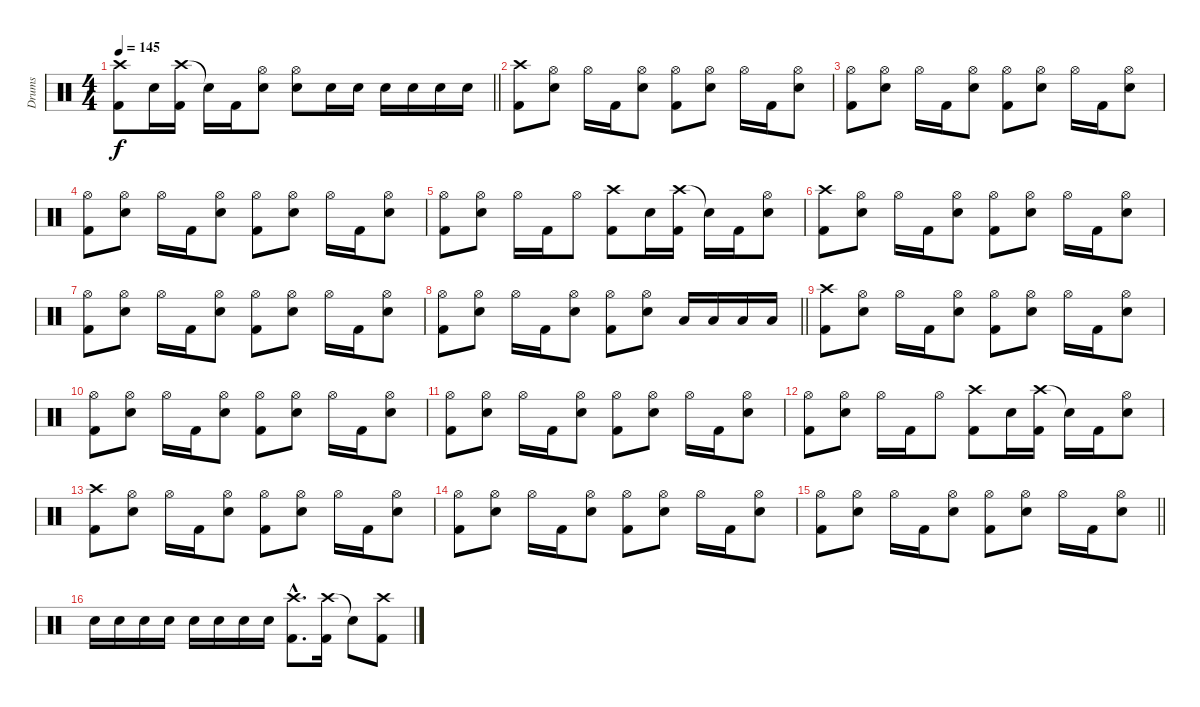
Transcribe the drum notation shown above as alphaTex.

\track ("Drums" "Drums") {instrument percussion}
\staff {score}
\articulation defaults
\ts (4 4)
\tempo 145
\clef neutral
\barLineRight lightlight
\ks c
("Crash high (hit)" "Kick (hit) 2").8{dy f} "Snare (hit) 2".16 ("Crash high (hit)" "Kick (hit) 2").16 "Snare (hit)"{t}.16 "Kick (hit) 2".16 ("Hi-Hat (open)" "Snare (hit) 2").8 ("Hi-Hat (open)" "Snare (hit) 2").8 "Snare (hit) 2".16 "Snare (hit) 2".16 "Snare (hit) 2".16 "Snare (hit) 2".16 "Snare (hit) 2".16 "Snare (hit) 2".16 |
("Crash high (hit)" "Kick (hit) 2").8 ("Hi-Hat (open)" "Snare (hit) 2").8 "Hi-Hat (open)".16 "Kick (hit) 2".16 ("Hi-Hat (open)" "Snare (hit) 2").8 ("Hi-Hat (open)" "Kick (hit) 2").8 ("Hi-Hat (open)" "Snare (hit) 2").8 "Hi-Hat (open)".16 "Kick (hit) 2".16 ("Hi-Hat (open)" "Snare (hit) 2").8 |
("Hi-Hat (open)" "Kick (hit) 2").8 ("Hi-Hat (open)" "Snare (hit) 2").8 "Hi-Hat (open)".16 "Kick (hit) 2".16 ("Hi-Hat (open)" "Snare (hit) 2").8 ("Hi-Hat (open)" "Kick (hit) 2").8 ("Hi-Hat (open)" "Snare (hit) 2").8 "Hi-Hat (open)".16 "Kick (hit) 2".16 ("Hi-Hat (open)" "Snare (hit) 2").8 |
("Hi-Hat (open)" "Kick (hit) 2").8 ("Hi-Hat (open)" "Snare (hit) 2").8 "Hi-Hat (open)".16 "Kick (hit) 2".16 ("Hi-Hat (open)" "Snare (hit) 2").8 ("Hi-Hat (open)" "Kick (hit) 2").8 ("Hi-Hat (open)" "Snare (hit) 2").8 "Hi-Hat (open)".16 "Kick (hit) 2".16 ("Hi-Hat (open)" "Snare (hit) 2").8 |
("Hi-Hat (open)" "Kick (hit) 2").8 ("Hi-Hat (open)" "Snare (hit) 2").8 "Hi-Hat (open)".16 "Kick (hit) 2".16 "Hi-Hat (open)".8 ("Crash high (hit)" "Kick (hit) 2").8 "Snare (hit) 2".16 ("Crash high (hit)" "Kick (hit) 2").16 "Snare (hit)"{t}.16 "Kick (hit) 2".16 ("Hi-Hat (open)" "Snare (hit) 2").8 |
("Crash high (hit)" "Kick (hit) 2").8 ("Hi-Hat (open)" "Snare (hit) 2").8 "Hi-Hat (open)".16 "Kick (hit) 2".16 ("Hi-Hat (open)" "Snare (hit) 2").8 ("Hi-Hat (open)" "Kick (hit) 2").8 ("Hi-Hat (open)" "Snare (hit) 2").8 "Hi-Hat (open)".16 "Kick (hit) 2".16 ("Hi-Hat (open)" "Snare (hit) 2").8 |
("Hi-Hat (open)" "Kick (hit) 2").8 ("Hi-Hat (open)" "Snare (hit) 2").8 "Hi-Hat (open)".16 "Kick (hit) 2".16 ("Hi-Hat (open)" "Snare (hit) 2").8 ("Hi-Hat (open)" "Kick (hit) 2").8 ("Hi-Hat (open)" "Snare (hit) 2").8 "Hi-Hat (open)".16 "Kick (hit) 2".16 ("Hi-Hat (open)" "Snare (hit) 2").8 |
\barLineRight lightlight
("Hi-Hat (open)" "Kick (hit) 2").8 ("Hi-Hat (open)" "Snare (hit) 2").8 "Hi-Hat (open)".16 "Kick (hit) 2".16 ("Hi-Hat (open)" "Snare (hit) 2").8 ("Hi-Hat (open)" "Kick (hit) 2").8 ("Hi-Hat (open)" "Snare (hit) 2").8 "Low Tom (hit)".16 "Low Tom (hit)".16 "Low Floor Tom (hit)".16 "Low Floor Tom (hit)".16 |
("Crash high (hit)" "Kick (hit) 2").8 ("Hi-Hat (open)" "Snare (hit) 2").8 "Hi-Hat (open)".16 "Kick (hit) 2".16 ("Hi-Hat (open)" "Snare (hit) 2").8 ("Hi-Hat (open)" "Kick (hit) 2").8 ("Hi-Hat (open)" "Snare (hit) 2").8 "Hi-Hat (open)".16 "Kick (hit) 2".16 ("Hi-Hat (open)" "Snare (hit) 2").8 |
("Hi-Hat (open)" "Kick (hit) 2").8 ("Hi-Hat (open)" "Snare (hit) 2").8 "Hi-Hat (open)".16 "Kick (hit) 2".16 ("Hi-Hat (open)" "Snare (hit) 2").8 ("Hi-Hat (open)" "Kick (hit) 2").8 ("Hi-Hat (open)" "Snare (hit) 2").8 "Hi-Hat (open)".16 "Kick (hit) 2".16 ("Hi-Hat (open)" "Snare (hit) 2").8 |
("Hi-Hat (open)" "Kick (hit) 2").8 ("Hi-Hat (open)" "Snare (hit) 2").8 "Hi-Hat (open)".16 "Kick (hit) 2".16 ("Hi-Hat (open)" "Snare (hit) 2").8 ("Hi-Hat (open)" "Kick (hit) 2").8 ("Hi-Hat (open)" "Snare (hit) 2").8 "Hi-Hat (open)".16 "Kick (hit) 2".16 ("Hi-Hat (open)" "Snare (hit) 2").8 |
("Hi-Hat (open)" "Kick (hit) 2").8 ("Hi-Hat (open)" "Snare (hit) 2").8 "Hi-Hat (open)".16 "Kick (hit) 2".16 "Hi-Hat (open)".8 ("Crash high (hit)" "Kick (hit) 2").8 "Snare (hit) 2".16 ("Crash high (hit)" "Kick (hit) 2").16 "Snare (hit)"{t}.16 "Kick (hit) 2".16 ("Hi-Hat (open)" "Snare (hit) 2").8 |
("Crash high (hit)" "Kick (hit) 2").8 ("Hi-Hat (open)" "Snare (hit) 2").8 "Hi-Hat (open)".16 "Kick (hit) 2".16 ("Hi-Hat (open)" "Snare (hit) 2").8 ("Hi-Hat (open)" "Kick (hit) 2").8 ("Hi-Hat (open)" "Snare (hit) 2").8 "Hi-Hat (open)".16 "Kick (hit) 2".16 ("Hi-Hat (open)" "Snare (hit) 2").8 |
("Hi-Hat (open)" "Kick (hit) 2").8 ("Hi-Hat (open)" "Snare (hit) 2").8 "Hi-Hat (open)".16 "Kick (hit) 2".16 ("Hi-Hat (open)" "Snare (hit) 2").8 ("Hi-Hat (open)" "Kick (hit) 2").8 ("Hi-Hat (open)" "Snare (hit) 2").8 "Hi-Hat (open)".16 "Kick (hit) 2".16 ("Hi-Hat (open)" "Snare (hit) 2").8 |
\barLineRight lightlight
("Hi-Hat (open)" "Kick (hit) 2").8 ("Hi-Hat (open)" "Snare (hit) 2").8 "Hi-Hat (open)".16 "Kick (hit) 2".16 ("Hi-Hat (open)" "Snare (hit) 2").8 ("Hi-Hat (open)" "Kick (hit) 2").8 ("Hi-Hat (open)" "Snare (hit) 2").8 "Hi-Hat (open)".16 "Kick (hit) 2".16 ("Hi-Hat (open)" "Snare (hit) 2").8 |
"Snare (hit) 2".16 "Snare (hit) 2".16 "Snare (hit) 2".16 "Snare (hit) 2".16 "Snare (hit) 2".16 "Snare (hit) 2".16 "Snare (hit) 2".16 "Snare (hit) 2".16 ("Crash high (hit)"{hac} "Kick (hit) 2"{hac}).8{d} ("Crash high (hit)" "Kick (hit) 2").16 "Snare (hit)"{t}.8 ("Crash high (hit)" "Kick (hit) 2").8
